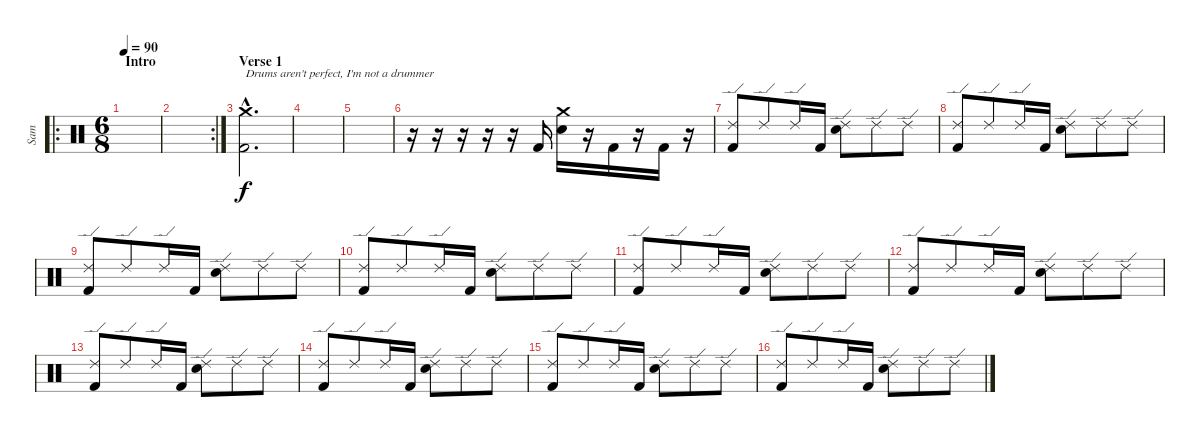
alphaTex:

\track ("Sam" "Sam") {instrument percussion}
\staff {score}
\articulation defaults
\ro
\ts (6 8)
\section ("" "Intro")
\tempo 90
\clef neutral
\ks c
|
\rc 2
|
\section ("" "Verse 1")
("Crash medium (hit)"{hac} "Kick (hit) 2"{hac}).2{d txt "Drums aren't perfect, I'm not a drummer"} |
|
|
r.16 r.16 r.16 r.16 r.16 "Kick (hit) 2".16 ("Crash medium (hit)" "Snare (hit) 2").16 r.16 "Kick (hit) 2".16 r.16 "Kick (hit) 2".16 r.16 |
("Ride (edge) 2" "Kick (hit) 2").8 "Ride (edge) 2".8 "Ride (edge) 2".16 "Kick (hit) 2".16 ("Ride (edge) 2" "Snare (hit) 2").8 "Ride (edge) 2".8 "Ride (edge) 2".8 |
("Ride (edge) 2" "Kick (hit) 2").8 "Ride (edge) 2".8 "Ride (edge) 2".16 "Kick (hit) 2".16 ("Ride (edge) 2" "Snare (hit) 2").8 "Ride (edge) 2".8 "Ride (edge) 2".8 |
("Ride (edge) 2" "Kick (hit) 2").8 "Ride (edge) 2".8 "Ride (edge) 2".16 "Kick (hit) 2".16 ("Ride (edge) 2" "Snare (hit) 2").8 "Ride (edge) 2".8 "Ride (edge) 2".8 |
("Ride (edge) 2" "Kick (hit) 2").8 "Ride (edge) 2".8 "Ride (edge) 2".16 "Kick (hit) 2".16 ("Ride (edge) 2" "Snare (hit) 2").8 "Ride (edge) 2".8 "Ride (edge) 2".8 |
("Ride (edge) 2" "Kick (hit) 2").8 "Ride (edge) 2".8 "Ride (edge) 2".16 "Kick (hit) 2".16 ("Ride (edge) 2" "Snare (hit) 2").8 "Ride (edge) 2".8 "Ride (edge) 2".8 |
("Ride (edge) 2" "Kick (hit) 2").8 "Ride (edge) 2".8 "Ride (edge) 2".16 "Kick (hit) 2".16 ("Ride (edge) 2" "Snare (hit) 2").8 "Ride (edge) 2".8 "Ride (edge) 2".8 |
("Ride (edge) 2" "Kick (hit) 2").8 "Ride (edge) 2".8 "Ride (edge) 2".16 "Kick (hit) 2".16 ("Ride (edge) 2" "Snare (hit) 2").8 "Ride (edge) 2".8 "Ride (edge) 2".8 |
("Ride (edge) 2" "Kick (hit) 2").8 "Ride (edge) 2".8 "Ride (edge) 2".16 "Kick (hit) 2".16 ("Ride (edge) 2" "Snare (hit) 2").8 "Ride (edge) 2".8 "Ride (edge) 2".8 |
("Ride (edge) 2" "Kick (hit) 2").8 "Ride (edge) 2".8 "Ride (edge) 2".16 "Kick (hit) 2".16 ("Ride (edge) 2" "Snare (hit) 2").8 "Ride (edge) 2".8 "Ride (edge) 2".8 |
("Ride (edge) 2" "Kick (hit) 2").8 "Ride (edge) 2".8 "Ride (edge) 2".16 "Kick (hit) 2".16 ("Ride (edge) 2" "Snare (hit) 2").8 "Ride (edge) 2".8 "Ride (edge) 2".8
